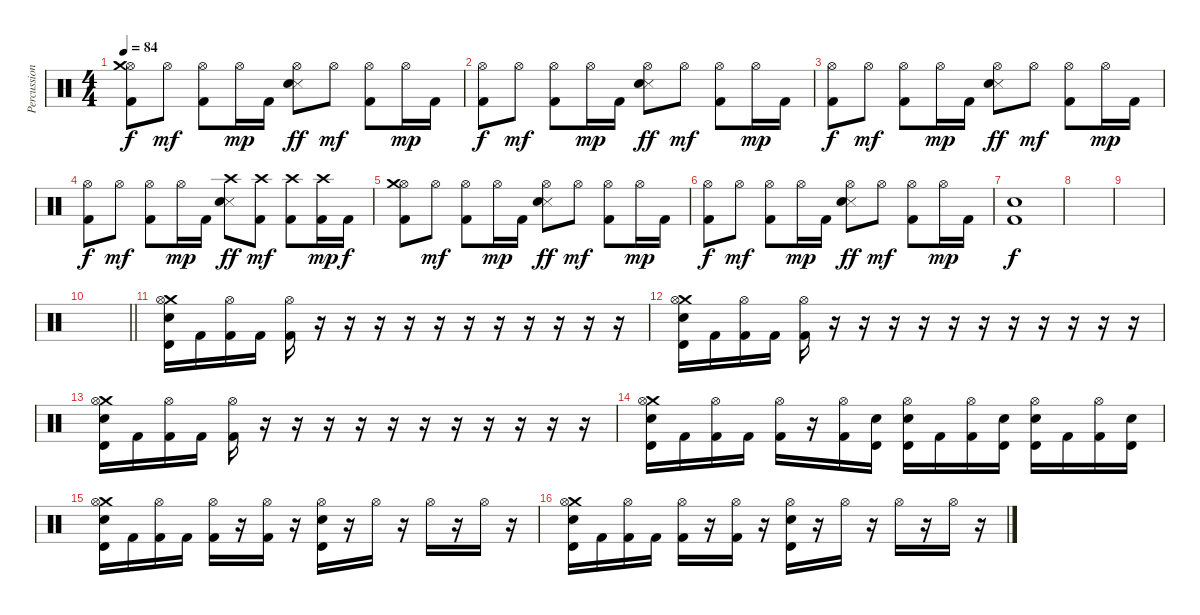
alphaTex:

\track ("Percussion" "Percussion") {instrument percussion}
\staff {score}
\articulation defaults
\ts (4 4)
\tempo 84
\clef neutral
\ks c
("Hi-Hat (open)" "Crash medium (hit)" "Kick (hit) 2").8{dy f} "Hi-Hat (open)".8{dy mf} ("Hi-Hat (open)" "Kick (hit) 2").8 "Hi-Hat (open)".16{dy mp} "Kick (hit) 2".16 ("Hi-Hat (open)" "Snare (side stick) 3" "Electric Snare (hit)").8{dy ff} "Hi-Hat (open)".8{dy mf} ("Hi-Hat (open)" "Kick (hit) 2").8 "Hi-Hat (open)".16{dy mp} "Kick (hit) 2".16 |
("Hi-Hat (open)" "Kick (hit) 2").8{dy f} "Hi-Hat (open)".8{dy mf} ("Hi-Hat (open)" "Kick (hit) 2").8 "Hi-Hat (open)".16{dy mp} "Kick (hit) 2".16 ("Hi-Hat (open)" "Snare (side stick) 3" "Electric Snare (hit)").8{dy ff} "Hi-Hat (open)".8{dy mf} ("Hi-Hat (open)" "Kick (hit) 2").8 "Hi-Hat (open)".16{dy mp} "Kick (hit) 2".16 |
("Hi-Hat (open)" "Kick (hit) 2").8{dy f} "Hi-Hat (open)".8{dy mf} ("Hi-Hat (open)" "Kick (hit) 2").8 "Hi-Hat (open)".16{dy mp} "Kick (hit) 2".16 ("Hi-Hat (open)" "Snare (side stick) 3" "Electric Snare (hit)").8{dy ff} "Hi-Hat (open)".8{dy mf} ("Hi-Hat (open)" "Kick (hit) 2").8 "Hi-Hat (open)".16{dy mp} "Kick (hit) 2".16 |
("Hi-Hat (open)" "Kick (hit) 2").8{dy f} "Hi-Hat (open)".8{dy mf} ("Hi-Hat (open)" "Kick (hit) 2").8 "Hi-Hat (open)".16{dy mp} "Kick (hit) 2".16 ("Crash high (hit)" "Snare (side stick) 3" "Electric Snare (hit)").8{dy ff} ("Crash high (hit)" "Kick (hit) 2").8{dy mf} ("Crash high (hit)" "Kick (hit) 2").8 ("Crash high (hit)" "Kick (hit) 2").16{dy mp} "Kick (hit) 2".16{dy f} |
("Hi-Hat (open)" "Crash medium (hit)" "Kick (hit) 2").8 "Hi-Hat (open)".8{dy mf} ("Hi-Hat (open)" "Kick (hit) 2").8 "Hi-Hat (open)".16{dy mp} "Kick (hit) 2".16 ("Hi-Hat (open)" "Snare (side stick) 3" "Electric Snare (hit)").8{dy ff} "Hi-Hat (open)".8{dy mf} ("Hi-Hat (open)" "Kick (hit) 2").8 "Hi-Hat (open)".16{dy mp} "Kick (hit) 2".16 |
("Hi-Hat (open)" "Kick (hit) 2").8{dy f} "Hi-Hat (open)".8{dy mf} ("Hi-Hat (open)" "Kick (hit) 2").8 "Hi-Hat (open)".16{dy mp} "Kick (hit) 2".16 ("Hi-Hat (open)" "Snare (side stick) 3" "Electric Snare (hit)").8{dy ff} "Hi-Hat (open)".8{dy mf} ("Hi-Hat (open)" "Kick (hit) 2").8 "Hi-Hat (open)".16{dy mp} "Kick (hit) 2".16 |
("Electric Snare (hit)" "Kick (hit) 2").1{dy f} |
|
|
\barLineRight lightlight
|
("Crash medium (hit)" "Hi-Hat (open)" "Timbale high (hit)" "Electric Snare (hit)").16 "Kick (hit) 2".16 ("Hi-Hat (open)" "Kick (hit) 2").16 "Kick (hit) 2".16 ("Hi-Hat (open)" "Kick (hit) 2").16 r.16 r.16 r.16 r.16 r.16 r.16 r.16 r.16 r.16 r.16 r.16 |
("Crash medium (hit)" "Hi-Hat (open)" "Timbale high (hit)" "Electric Snare (hit)").16 "Kick (hit) 2".16 ("Hi-Hat (open)" "Kick (hit) 2").16 "Kick (hit) 2".16 ("Hi-Hat (open)" "Kick (hit) 2").16 r.16 r.16 r.16 r.16 r.16 r.16 r.16 r.16 r.16 r.16 r.16 |
("Crash medium (hit)" "Hi-Hat (open)" "Timbale high (hit)" "Electric Snare (hit)").16 "Kick (hit) 2".16 ("Hi-Hat (open)" "Kick (hit) 2").16 "Kick (hit) 2".16 ("Hi-Hat (open)" "Kick (hit) 2").16 r.16 r.16 r.16 r.16 r.16 r.16 r.16 r.16 r.16 r.16 r.16 |
("Crash medium (hit)" "Hi-Hat (open)" "Timbale high (hit)" "Electric Snare (hit)").16 "Kick (hit) 2".16 ("Hi-Hat (open)" "Kick (hit) 2").16 "Kick (hit) 2".16 ("Hi-Hat (open)" "Kick (hit) 2").16 r.16 ("Hi-Hat (open)" "Kick (hit) 2").16 ("Timbale high (hit)" "Electric Snare (hit)").16 ("Hi-Hat (open)" "Timbale high (hit)" "Electric Snare (hit)").16 "Kick (hit) 2".16 ("Hi-Hat (open)" "Kick (hit) 2").16 ("Timbale high (hit)" "Electric Snare (hit)").16 ("Hi-Hat (open)" "Timbale high (hit)" "Electric Snare (hit)").16 "Kick (hit) 2".16 ("Hi-Hat (open)" "Kick (hit) 2").16 ("Timbale high (hit)" "Electric Snare (hit)").16 |
("Crash medium (hit)" "Hi-Hat (open)" "Timbale high (hit)" "Electric Snare (hit)").16 "Kick (hit) 2".16 ("Hi-Hat (open)" "Kick (hit) 2").16 "Kick (hit) 2".16 ("Hi-Hat (open)" "Kick (hit) 2").16 r.16 ("Hi-Hat (open)" "Kick (hit) 2").16 r.16 ("Hi-Hat (open)" "Timbale high (hit)" "Electric Snare (hit)").16 r.16 "Hi-Hat (open)".16 r.16 "Hi-Hat (open)".16 r.16 "Hi-Hat (open)".16 r.16 |
("Crash medium (hit)" "Hi-Hat (open)" "Timbale high (hit)" "Electric Snare (hit)").16 "Kick (hit) 2".16 ("Hi-Hat (open)" "Kick (hit) 2").16 "Kick (hit) 2".16 ("Hi-Hat (open)" "Kick (hit) 2").16 r.16 ("Hi-Hat (open)" "Kick (hit) 2").16 r.16 ("Hi-Hat (open)" "Timbale high (hit)" "Electric Snare (hit)").16 r.16 "Hi-Hat (open)".16 r.16 "Hi-Hat (open)".16 r.16 "Hi-Hat (open)".16 r.16
